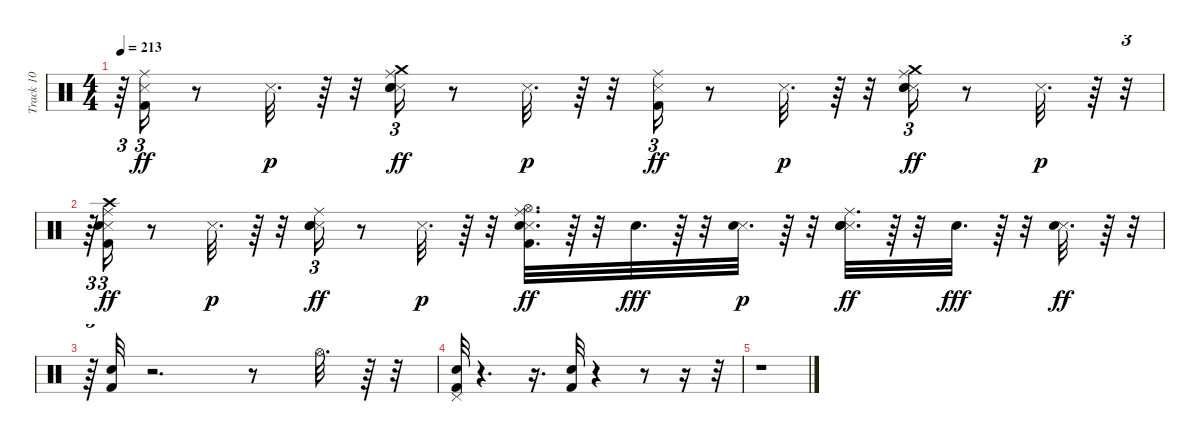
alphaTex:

\track ("Track 10" "Track 10") {instrument percussion}
\staff {score}
\articulation defaults
\ts (4 4)
\tempo 213
\clef neutral
\ks c
r.64{tu (3 2) dy p} ("Kick (hit) 2" "Snare (side stick) 3" "Ride (middle)").16{tu (3 2) dy ff} r.8 "Snare (side stick) 3".32{d dy p} r.64 r.32 ("Snare (side stick) 3" "Hand Clap (hit)" "Electric Snare (hit)" "Ride (middle)" "Crash medium (hit)").16{tu (3 2) dy ff} r.8 "Snare (side stick) 3".32{d dy p} r.64 r.32 ("Kick (hit) 2" "Snare (side stick) 3" "Ride (middle)").16{tu (3 2) dy ff} r.8 "Snare (side stick) 3".32{d dy p} r.64 r.32 ("Snare (side stick) 3" "Hand Clap (hit)" "Electric Snare (hit)" "Ride (middle)" "Crash medium (hit)").16{tu (3 2) dy ff} r.8 "Snare (side stick) 3".32{d dy p} r.64 r.32{tu (3 2)} |
r.64{tu (3 2)} ("Kick (hit) 2" "Snare (side stick) 3" "Electric Snare (hit)" "Crash high (hit)" "Ride (middle)").16{tu (3 2) dy ff} r.8 "Snare (side stick) 3".32{d dy p} r.64 r.32 ("Snare (side stick) 3" "Hand Clap (hit)" "Electric Snare (hit)" "Ride (middle)").16{tu (3 2) dy ff} r.8 "Snare (side stick) 3".32{d dy p} r.64 r.32 ("Kick (hit) 2" "Snare (side stick) 3" "Electric Snare (hit)" "Hi-Hat (open)" "Ride (middle)").32{d dy ff} r.64 r.32 "Electric Snare (hit)".32{d dy fff} r.64 r.32 ("Snare (side stick) 3" "Electric Snare (hit)").32{d dy p} r.64 r.32 ("Snare (side stick) 3" "Hand Clap (hit)" "Electric Snare (hit)" "Ride (middle)").32{d dy ff} r.64 r.32 "Electric Snare (hit)".32{d dy fff} r.64 r.32 ("Snare (side stick) 3" "Electric Snare (hit)").32{d dy ff} r.64 r.32{tu (3 2)} |
r.64{tu (3 2)} ("Kick (hit) 2" "Electric Snare (hit)").32 r.2{d} r.8 "Hi-Hat (open)".32{d} r.64 r.32 |
("Kick (hit) 2" "Electric Snare (hit)" "Pedal Hi-Hat (hit)").32 r.4{d} r.16{d} ("Kick (hit) 2" "Electric Snare (hit)").32 r.4 r.8 r.16 r.32 |
r.1
